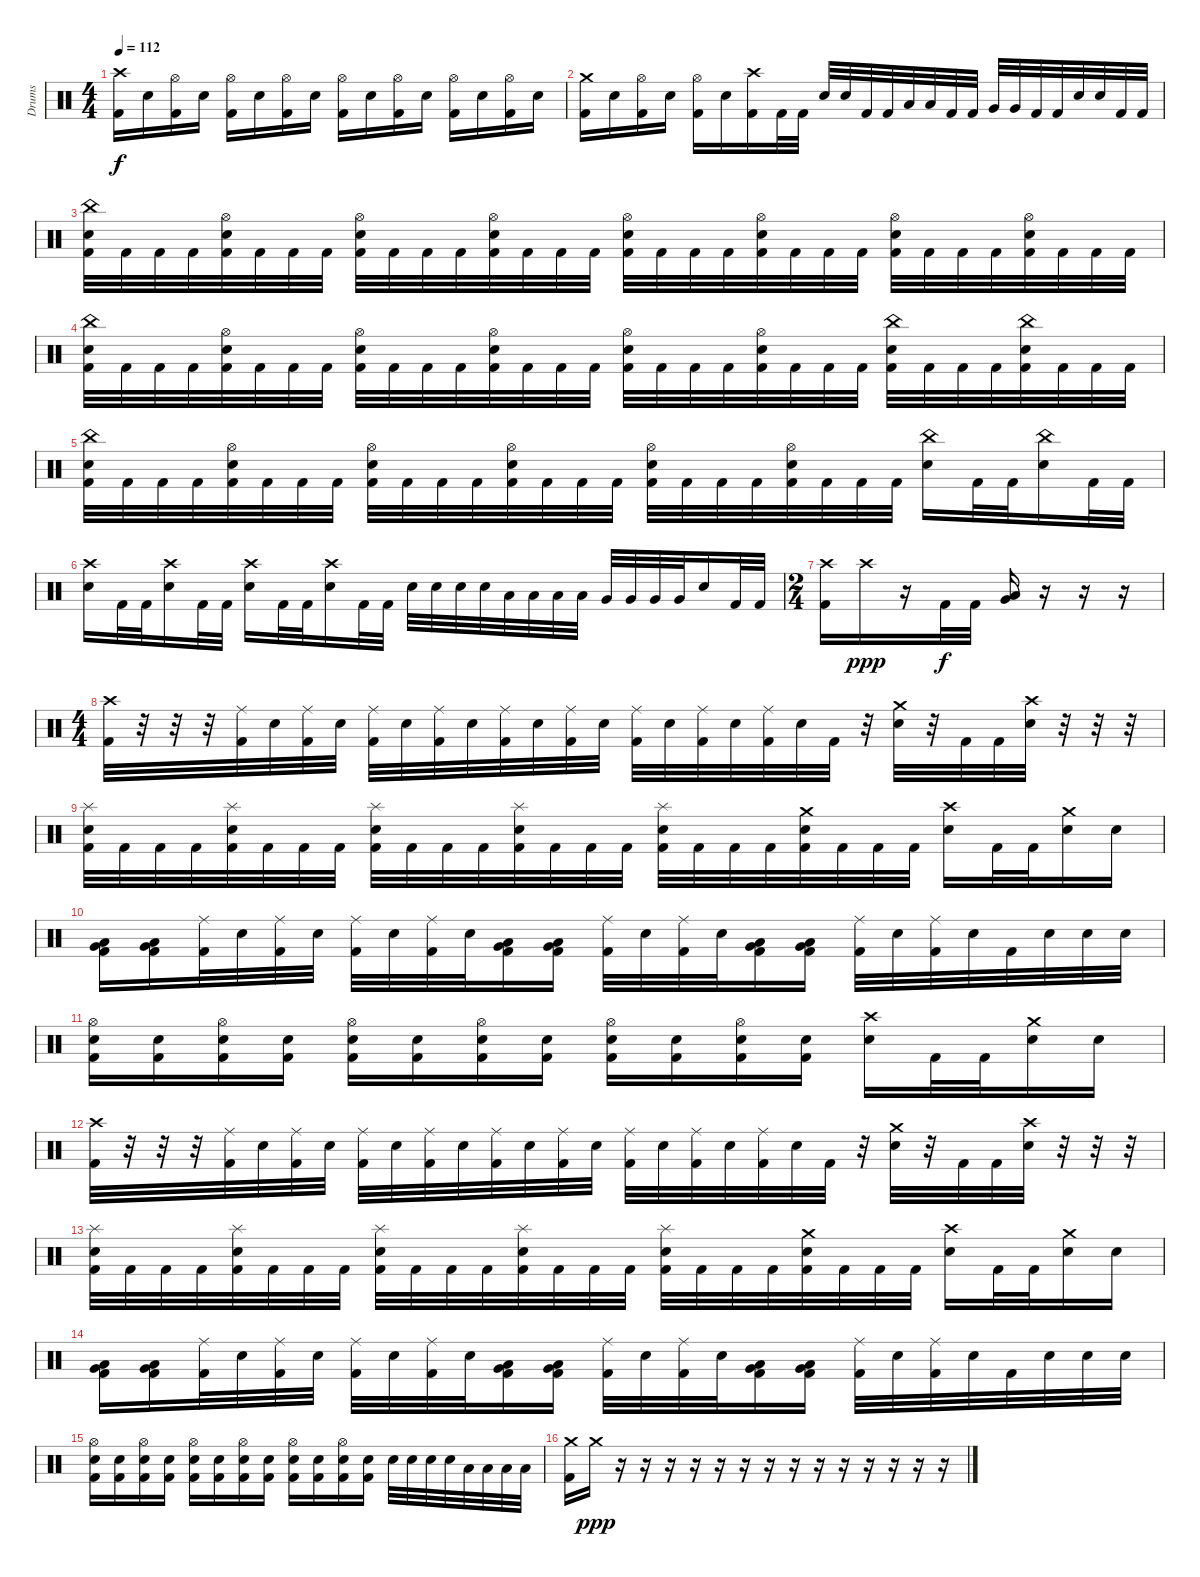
\track ("Drums" "Drums") {instrument percussion}
\staff {score}
\articulation defaults
\ts (4 4)
\tempo 112
\clef neutral
\ks c
("Crash high (hit)" "Kick (hit) 2").16{dy f} "Snare (hit) 2".16 ("Hi-Hat (open)" "Kick (hit) 2").16 "Snare (hit) 2".16 ("Hi-Hat (open)" "Kick (hit) 2").16 "Snare (hit) 2".16 ("Hi-Hat (open)" "Kick (hit) 2").16 "Snare (hit) 2".16 ("Hi-Hat (open)" "Kick (hit) 2").16 "Snare (hit) 2".16 ("Hi-Hat (open)" "Kick (hit) 2").16 "Snare (hit) 2".16 ("Hi-Hat (open)" "Kick (hit) 2").16 "Snare (hit) 2".16 ("Hi-Hat (open)" "Kick (hit) 2").16 "Snare (hit) 2".16 |
("Crash medium (hit)" "Kick (hit) 2").16 "Snare (hit) 2".16 ("Hi-Hat (open)" "Kick (hit) 2").16 "Snare (hit) 2".16 ("Hi-Hat (open)" "Kick (hit) 2").16 "Snare (hit) 2".16 ("Crash high (hit)" "Kick (hit) 2").16 "Kick (hit) 2".32 "Kick (hit) 2".32 "Snare (hit) 2".32 "Snare (hit) 2".32 "Kick (hit) 2".32 "Kick (hit) 2".32 "Low Tom (hit)".32 "Low Tom (hit)".32 "Kick (hit) 2".32 "Kick (hit) 2".32 "Very Low Tom (hit)".32 "Very Low Tom (hit)".32 "Kick (hit) 2".32 "Kick (hit) 2".32 "Snare (hit) 2".32 "Snare (hit) 2".32 "Kick (hit) 2".32 "Kick (hit) 2".32 |
("China (hit)" "Snare (hit) 2" "Kick (hit) 2").32 "Kick (hit) 2".32 "Kick (hit) 2".32 "Kick (hit) 2".32 ("Hi-Hat (open)" "Snare (hit) 2" "Kick (hit) 2").32 "Kick (hit) 2".32 "Kick (hit) 2".32 "Kick (hit) 2".32 ("Hi-Hat (open)" "Snare (hit) 2" "Kick (hit) 2").32 "Kick (hit) 2".32 "Kick (hit) 2".32 "Kick (hit) 2".32 ("Hi-Hat (open)" "Snare (hit) 2" "Kick (hit) 2").32 "Kick (hit) 2".32 "Kick (hit) 2".32 "Kick (hit) 2".32 ("Hi-Hat (open)" "Snare (hit) 2" "Kick (hit) 2").32 "Kick (hit) 2".32 "Kick (hit) 2".32 "Kick (hit) 2".32 ("Hi-Hat (open)" "Snare (hit) 2" "Kick (hit) 2").32 "Kick (hit) 2".32 "Kick (hit) 2".32 "Kick (hit) 2".32 ("Hi-Hat (open)" "Snare (hit) 2" "Kick (hit) 2").32 "Kick (hit) 2".32 "Kick (hit) 2".32 "Kick (hit) 2".32 ("Hi-Hat (open)" "Snare (hit) 2" "Kick (hit) 2").32 "Kick (hit) 2".32 "Kick (hit) 2".32 "Kick (hit) 2".32 |
("China (hit)" "Snare (hit) 2" "Kick (hit) 2").32 "Kick (hit) 2".32 "Kick (hit) 2".32 "Kick (hit) 2".32 ("Hi-Hat (open)" "Snare (hit) 2" "Kick (hit) 2").32 "Kick (hit) 2".32 "Kick (hit) 2".32 "Kick (hit) 2".32 ("Hi-Hat (open)" "Snare (hit) 2" "Kick (hit) 2").32 "Kick (hit) 2".32 "Kick (hit) 2".32 "Kick (hit) 2".32 ("Hi-Hat (open)" "Snare (hit) 2" "Kick (hit) 2").32 "Kick (hit) 2".32 "Kick (hit) 2".32 "Kick (hit) 2".32 ("Hi-Hat (open)" "Snare (hit) 2" "Kick (hit) 2").32 "Kick (hit) 2".32 "Kick (hit) 2".32 "Kick (hit) 2".32 ("Hi-Hat (open)" "Snare (hit) 2" "Kick (hit) 2").32 "Kick (hit) 2".32 "Kick (hit) 2".32 "Kick (hit) 2".32 ("China (hit)" "Snare (hit) 2" "Kick (hit) 2").32 "Kick (hit) 2".32 "Kick (hit) 2".32 "Kick (hit) 2".32 ("China (hit)" "Snare (hit) 2" "Kick (hit) 2").32 "Kick (hit) 2".32 "Kick (hit) 2".32 "Kick (hit) 2".32 |
("China (hit)" "Snare (hit) 2" "Kick (hit) 2").32 "Kick (hit) 2".32 "Kick (hit) 2".32 "Kick (hit) 2".32 ("Hi-Hat (open)" "Snare (hit) 2" "Kick (hit) 2").32 "Kick (hit) 2".32 "Kick (hit) 2".32 "Kick (hit) 2".32 ("Hi-Hat (open)" "Snare (hit) 2" "Kick (hit) 2").32 "Kick (hit) 2".32 "Kick (hit) 2".32 "Kick (hit) 2".32 ("Hi-Hat (open)" "Snare (hit) 2" "Kick (hit) 2").32 "Kick (hit) 2".32 "Kick (hit) 2".32 "Kick (hit) 2".32 ("Hi-Hat (open)" "Snare (hit) 2" "Kick (hit) 2").32 "Kick (hit) 2".32 "Kick (hit) 2".32 "Kick (hit) 2".32 ("Hi-Hat (open)" "Snare (hit) 2" "Kick (hit) 2").32 "Kick (hit) 2".32 "Kick (hit) 2".32 "Kick (hit) 2".32 ("China (hit)" "Snare (hit) 2").16 "Kick (hit) 2".32 "Kick (hit) 2".32 ("China (hit)" "Snare (hit) 2").16 "Kick (hit) 2".32 "Kick (hit) 2".32 |
("Crash high (hit)" "Snare (hit) 2").16 "Kick (hit) 2".32 "Kick (hit) 2".32 ("Crash high (hit)" "Snare (hit) 2").16 "Kick (hit) 2".32 "Kick (hit) 2".32 ("Crash high (hit)" "Snare (hit) 2").16 "Kick (hit) 2".32 "Kick (hit) 2".32 ("Crash high (hit)" "Snare (hit) 2").16 "Kick (hit) 2".32 "Kick (hit) 2".32 "Snare (hit) 2".32 "Snare (hit) 2".32 "Snare (hit) 2".32 "Snare (hit) 2".32 "Low Tom (hit)".32 "Low Tom (hit)".32 "Low Tom (hit)".32 "Low Tom (hit)".32 "Very Low Tom (hit)".32 "Very Low Tom (hit)".32 "Very Low Tom (hit)".32 "Very Low Tom (hit)".32 "Snare (hit) 2".16 "Kick (hit) 2".32 "Kick (hit) 2".32 |
\ts (2 4)
("Crash high (hit)" "Kick (hit) 2").16 "Crash high (hit)".16{dy ppp} r.16 "Kick (hit) 2".32{dy f} "Kick (hit) 2".32 ("Very Low Tom (hit)" "Low Tom (hit)").16 r.16 r.16 r.16 |
\ts (4 4)
("Crash high (hit)" "Kick (hit) 2").32 r.32 r.32 r.32 ("Ride (middle)" "Kick (hit) 2").32 "Snare (hit) 2".32 ("Ride (middle)" "Kick (hit) 2").32 "Snare (hit) 2".32 ("Ride (middle)" "Kick (hit) 2").32 "Snare (hit) 2".32 ("Ride (middle)" "Kick (hit) 2").32 "Snare (hit) 2".32 ("Ride (middle)" "Kick (hit) 2").32 "Snare (hit) 2".32 ("Ride (middle)" "Kick (hit) 2").32 "Snare (hit) 2".32 ("Ride (middle)" "Kick (hit) 2").32 "Snare (hit) 2".32 ("Ride (middle)" "Kick (hit) 2").32 "Snare (hit) 2".32 ("Ride (middle)" "Kick (hit) 2").32 "Snare (hit) 2".32 "Kick (hit) 2".32 r.32 ("Crash medium (hit)" "Snare (hit) 2").32 r.32 "Kick (hit) 2".32 "Kick (hit) 2".32 ("Crash high (hit)" "Snare (hit) 2").32 r.32 r.32 r.32 |
("Splash (hit)" "Snare (hit) 2" "Kick (hit) 2").32 "Kick (hit) 2".32 "Kick (hit) 2".32 "Kick (hit) 2".32 ("Splash (hit)" "Snare (hit) 2" "Kick (hit) 2").32 "Kick (hit) 2".32 "Kick (hit) 2".32 "Kick (hit) 2".32 ("Splash (hit)" "Snare (hit) 2" "Kick (hit) 2").32 "Kick (hit) 2".32 "Kick (hit) 2".32 "Kick (hit) 2".32 ("Splash (hit)" "Snare (hit) 2" "Kick (hit) 2").32 "Kick (hit) 2".32 "Kick (hit) 2".32 "Kick (hit) 2".32 ("Splash (hit)" "Snare (hit) 2" "Kick (hit) 2").32 "Kick (hit) 2".32 "Kick (hit) 2".32 "Kick (hit) 2".32 ("Crash medium (hit)" "Snare (hit) 2" "Kick (hit) 2").32 "Kick (hit) 2".32 "Kick (hit) 2".32 "Kick (hit) 2".32 ("Crash high (hit)" "Snare (hit) 2").16 "Kick (hit) 2".32 "Kick (hit) 2".32 ("Crash medium (hit)" "Snare (hit) 2").16 "Snare (hit) 2".16 |
("Very Low Tom (hit)" "Low Tom (hit)" "Kick (hit) 2").16 ("Very Low Tom (hit)" "Low Tom (hit)" "Kick (hit) 2").16 ("Ride (middle)" "Kick (hit) 2").32 "Snare (hit) 2".32 ("Ride (middle)" "Kick (hit) 2").32 "Snare (hit) 2".32 ("Ride (middle)" "Kick (hit) 2").32 "Snare (hit) 2".32 ("Ride (middle)" "Kick (hit) 2").32 "Snare (hit) 2".32 ("Very Low Tom (hit)" "Low Tom (hit)" "Kick (hit) 2").16 ("Very Low Tom (hit)" "Low Tom (hit)" "Kick (hit) 2").16 ("Ride (middle)" "Kick (hit) 2").32 "Snare (hit) 2".32 ("Ride (middle)" "Kick (hit) 2").32 "Snare (hit) 2".32 ("Very Low Tom (hit)" "Low Tom (hit)" "Kick (hit) 2").16 ("Very Low Tom (hit)" "Low Tom (hit)" "Kick (hit) 2").16 ("Ride (middle)" "Kick (hit) 2").32 "Snare (hit) 2".32 ("Ride (middle)" "Kick (hit) 2").32 "Snare (hit) 2".32 "Kick (hit) 2".32 "Snare (hit) 2".32 "Snare (hit) 2".32 "Snare (hit) 2".32 |
("Hi-Hat (open)" "Snare (hit) 2" "Kick (hit) 2").16 ("Snare (hit) 2" "Kick (hit) 2").16 ("Hi-Hat (open)" "Snare (hit) 2" "Kick (hit) 2").16 ("Snare (hit) 2" "Kick (hit) 2").16 ("Hi-Hat (open)" "Snare (hit) 2" "Kick (hit) 2").16 ("Snare (hit) 2" "Kick (hit) 2").16 ("Hi-Hat (open)" "Snare (hit) 2" "Kick (hit) 2").16 ("Snare (hit) 2" "Kick (hit) 2").16 ("Hi-Hat (open)" "Snare (hit) 2" "Kick (hit) 2").16 ("Snare (hit) 2" "Kick (hit) 2").16 ("Hi-Hat (open)" "Snare (hit) 2" "Kick (hit) 2").16 ("Snare (hit) 2" "Kick (hit) 2").16 ("Crash high (hit)" "Snare (hit) 2").16 "Kick (hit) 2".32 "Kick (hit) 2".32 ("Crash medium (hit)" "Snare (hit) 2").16 "Snare (hit) 2".16 |
("Crash high (hit)" "Kick (hit) 2").32 r.32 r.32 r.32 ("Ride (middle)" "Kick (hit) 2").32 "Snare (hit) 2".32 ("Ride (middle)" "Kick (hit) 2").32 "Snare (hit) 2".32 ("Ride (middle)" "Kick (hit) 2").32 "Snare (hit) 2".32 ("Ride (middle)" "Kick (hit) 2").32 "Snare (hit) 2".32 ("Ride (middle)" "Kick (hit) 2").32 "Snare (hit) 2".32 ("Ride (middle)" "Kick (hit) 2").32 "Snare (hit) 2".32 ("Ride (middle)" "Kick (hit) 2").32 "Snare (hit) 2".32 ("Ride (middle)" "Kick (hit) 2").32 "Snare (hit) 2".32 ("Ride (middle)" "Kick (hit) 2").32 "Snare (hit) 2".32 "Kick (hit) 2".32 r.32 ("Crash medium (hit)" "Snare (hit) 2").32 r.32 "Kick (hit) 2".32 "Kick (hit) 2".32 ("Crash high (hit)" "Snare (hit) 2").32 r.32 r.32 r.32 |
("Splash (hit)" "Snare (hit) 2" "Kick (hit) 2").32 "Kick (hit) 2".32 "Kick (hit) 2".32 "Kick (hit) 2".32 ("Splash (hit)" "Snare (hit) 2" "Kick (hit) 2").32 "Kick (hit) 2".32 "Kick (hit) 2".32 "Kick (hit) 2".32 ("Splash (hit)" "Snare (hit) 2" "Kick (hit) 2").32 "Kick (hit) 2".32 "Kick (hit) 2".32 "Kick (hit) 2".32 ("Splash (hit)" "Snare (hit) 2" "Kick (hit) 2").32 "Kick (hit) 2".32 "Kick (hit) 2".32 "Kick (hit) 2".32 ("Splash (hit)" "Snare (hit) 2" "Kick (hit) 2").32 "Kick (hit) 2".32 "Kick (hit) 2".32 "Kick (hit) 2".32 ("Crash medium (hit)" "Snare (hit) 2" "Kick (hit) 2").32 "Kick (hit) 2".32 "Kick (hit) 2".32 "Kick (hit) 2".32 ("Crash high (hit)" "Snare (hit) 2").16 "Kick (hit) 2".32 "Kick (hit) 2".32 ("Crash medium (hit)" "Snare (hit) 2").16 "Snare (hit) 2".16 |
("Very Low Tom (hit)" "Low Tom (hit)" "Kick (hit) 2").16 ("Very Low Tom (hit)" "Low Tom (hit)" "Kick (hit) 2").16 ("Ride (middle)" "Kick (hit) 2").32 "Snare (hit) 2".32 ("Ride (middle)" "Kick (hit) 2").32 "Snare (hit) 2".32 ("Ride (middle)" "Kick (hit) 2").32 "Snare (hit) 2".32 ("Ride (middle)" "Kick (hit) 2").32 "Snare (hit) 2".32 ("Very Low Tom (hit)" "Low Tom (hit)" "Kick (hit) 2").16 ("Very Low Tom (hit)" "Low Tom (hit)" "Kick (hit) 2").16 ("Ride (middle)" "Kick (hit) 2").32 "Snare (hit) 2".32 ("Ride (middle)" "Kick (hit) 2").32 "Snare (hit) 2".32 ("Very Low Tom (hit)" "Low Tom (hit)" "Kick (hit) 2").16 ("Very Low Tom (hit)" "Low Tom (hit)" "Kick (hit) 2").16 ("Ride (middle)" "Kick (hit) 2").32 "Snare (hit) 2".32 ("Ride (middle)" "Kick (hit) 2").32 "Snare (hit) 2".32 "Kick (hit) 2".32 "Snare (hit) 2".32 "Snare (hit) 2".32 "Snare (hit) 2".32 |
("Hi-Hat (open)" "Snare (hit) 2" "Kick (hit) 2").16 ("Snare (hit) 2" "Kick (hit) 2").16 ("Hi-Hat (open)" "Snare (hit) 2" "Kick (hit) 2").16 ("Snare (hit) 2" "Kick (hit) 2").16 ("Hi-Hat (open)" "Snare (hit) 2" "Kick (hit) 2").16 ("Snare (hit) 2" "Kick (hit) 2").16 ("Hi-Hat (open)" "Snare (hit) 2" "Kick (hit) 2").16 ("Snare (hit) 2" "Kick (hit) 2").16 ("Hi-Hat (open)" "Snare (hit) 2" "Kick (hit) 2").16 ("Snare (hit) 2" "Kick (hit) 2").16 ("Hi-Hat (open)" "Snare (hit) 2" "Kick (hit) 2").16 ("Snare (hit) 2" "Kick (hit) 2").16 "Snare (hit) 2".32 "Snare (hit) 2".32 "Snare (hit) 2".32 "Snare (hit) 2".32 "Low Tom (hit)".32 "Low Tom (hit)".32 "Low Tom (hit)".32 "Low Tom (hit)".32 |
("Crash medium (hit)" "Kick (hit) 2").16 "Crash medium (hit)".16{dy ppp} r.16 r.16 r.16 r.16 r.16 r.16 r.16 r.16 r.16 r.16 r.16 r.16 r.16 r.16
